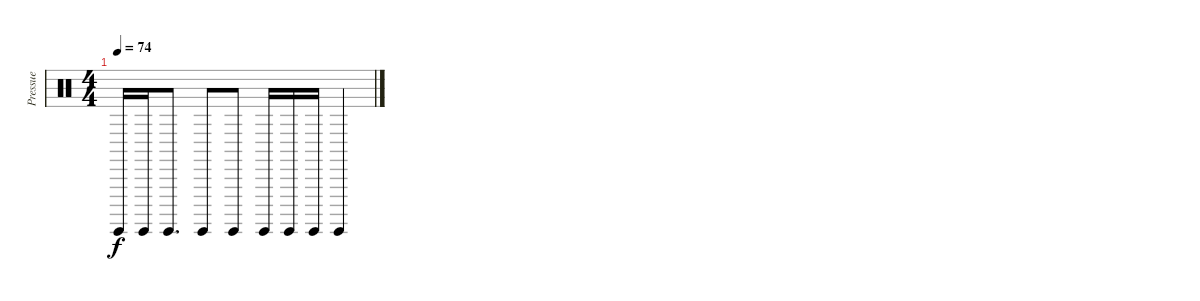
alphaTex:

\track ("Pressue" "Pressue") {instrument percussion}
\staff {score}
\articulation defaults
\ts (4 4)
\tempo 74
\clef neutral
\ks c "Surdo (hit)".16{dy f} "Surdo (hit)".16 "Surdo (hit)".8{d} "Surdo (hit)".8 "Surdo (hit)".8 "Surdo (hit)".16 "Surdo (hit)".16 "Surdo (hit)".16 "Surdo (hit)".4
